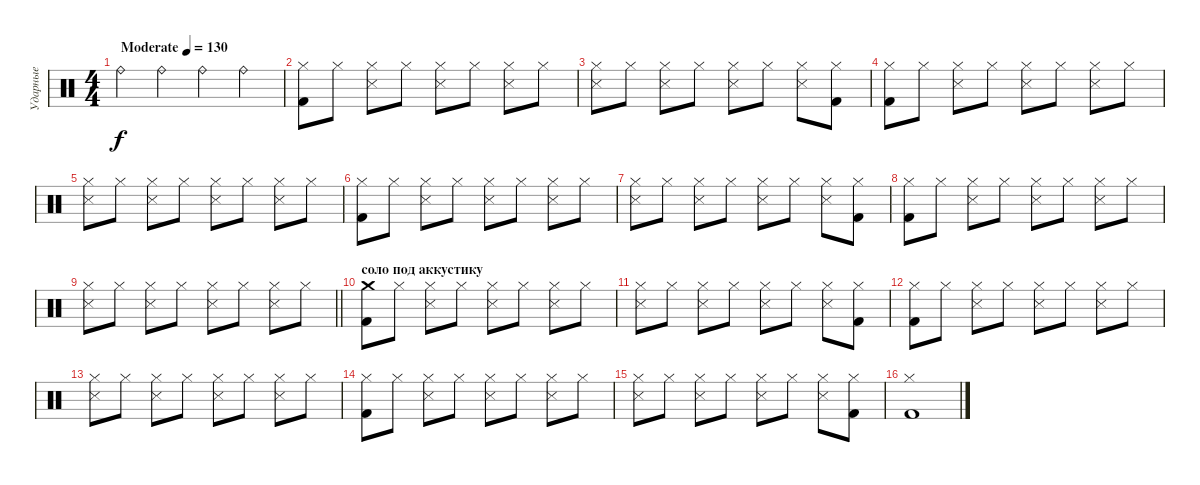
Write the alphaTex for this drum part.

\track ("Ударные" "Ударные") {instrument percussion}
\staff
\articulation defaults
\ts (4 4)
\tempo (130 "Moderate")
\clef neutral
\ks c "Ride (bell)".4{dy f} "Ride (bell)".4 "Ride (bell)".4 "Ride (bell)".4
|
("Hi-Hat (closed)" "Kick (hit) 2").8 "Hi-Hat (closed)".8 ("Hi-Hat (closed)" "Snare (side stick) 3").8 "Hi-Hat (closed)".8 ("Hi-Hat (closed)" "Snare (side stick) 3").8 "Hi-Hat (closed)".8 ("Hi-Hat (closed)" "Snare (side stick) 3").8 "Hi-Hat (closed)".8 |
("Hi-Hat (closed)" "Snare (side stick) 3").8 "Hi-Hat (closed)".8 ("Hi-Hat (closed)" "Snare (side stick) 3").8 "Hi-Hat (closed)".8 ("Hi-Hat (closed)" "Snare (side stick) 3").8 "Hi-Hat (closed)".8 ("Hi-Hat (closed)" "Snare (side stick) 3").8 ("Hi-Hat (closed)" "Kick (hit) 2").8 |
("Hi-Hat (closed)" "Kick (hit) 2").8 "Hi-Hat (closed)".8 ("Hi-Hat (closed)" "Snare (side stick) 3").8 "Hi-Hat (closed)".8 ("Hi-Hat (closed)" "Snare (side stick) 3").8 "Hi-Hat (closed)".8 ("Hi-Hat (closed)" "Snare (side stick) 3").8 "Hi-Hat (closed)".8 |
("Hi-Hat (closed)" "Snare (side stick) 3").8 "Hi-Hat (closed)".8 ("Hi-Hat (closed)" "Snare (side stick) 3").8 "Hi-Hat (closed)".8 ("Hi-Hat (closed)" "Snare (side stick) 3").8 "Hi-Hat (closed)".8 ("Hi-Hat (closed)" "Snare (side stick) 3").8 "Hi-Hat (closed)".8 |
("Hi-Hat (closed)" "Kick (hit) 2").8 "Hi-Hat (closed)".8 ("Hi-Hat (closed)" "Snare (side stick) 3").8 "Hi-Hat (closed)".8 ("Hi-Hat (closed)" "Snare (side stick) 3").8 "Hi-Hat (closed)".8 ("Hi-Hat (closed)" "Snare (side stick) 3").8 "Hi-Hat (closed)".8 |
("Hi-Hat (closed)" "Snare (side stick) 3").8 "Hi-Hat (closed)".8 ("Hi-Hat (closed)" "Snare (side stick) 3").8 "Hi-Hat (closed)".8 ("Hi-Hat (closed)" "Snare (side stick) 3").8 "Hi-Hat (closed)".8 ("Hi-Hat (closed)" "Snare (side stick) 3").8 ("Hi-Hat (closed)" "Kick (hit) 2").8 |
("Hi-Hat (closed)" "Kick (hit) 2").8 "Hi-Hat (closed)".8 ("Hi-Hat (closed)" "Snare (side stick) 3").8 "Hi-Hat (closed)".8 ("Hi-Hat (closed)" "Snare (side stick) 3").8 "Hi-Hat (closed)".8 ("Hi-Hat (closed)" "Snare (side stick) 3").8 "Hi-Hat (closed)".8 |
\barLineRight lightlight
("Hi-Hat (closed)" "Snare (side stick) 3").8 "Hi-Hat (closed)".8 ("Hi-Hat (closed)" "Snare (side stick) 3").8 "Hi-Hat (closed)".8 ("Hi-Hat (closed)" "Snare (side stick) 3").8 "Hi-Hat (closed)".8 ("Hi-Hat (closed)" "Snare (side stick) 3").8 "Hi-Hat (closed)".8 |
\section ("" "соло под аккустику")
("Crash medium (hit)" "Kick (hit) 2").8 "Hi-Hat (closed)".8 ("Hi-Hat (closed)" "Snare (side stick) 3").8 "Hi-Hat (closed)".8 ("Hi-Hat (closed)" "Snare (side stick) 3").8 "Hi-Hat (closed)".8 ("Hi-Hat (closed)" "Snare (side stick) 3").8 "Hi-Hat (closed)".8 |
("Hi-Hat (closed)" "Snare (side stick) 3").8 "Hi-Hat (closed)".8 ("Hi-Hat (closed)" "Snare (side stick) 3").8 "Hi-Hat (closed)".8 ("Hi-Hat (closed)" "Snare (side stick) 3").8 "Hi-Hat (closed)".8 ("Hi-Hat (closed)" "Snare (side stick) 3").8 ("Hi-Hat (closed)" "Kick (hit) 2").8 |
("Hi-Hat (closed)" "Kick (hit) 2").8 "Hi-Hat (closed)".8 ("Hi-Hat (closed)" "Snare (side stick) 3").8 "Hi-Hat (closed)".8 ("Hi-Hat (closed)" "Snare (side stick) 3").8 "Hi-Hat (closed)".8 ("Hi-Hat (closed)" "Snare (side stick) 3").8 "Hi-Hat (closed)".8 |
("Hi-Hat (closed)" "Snare (side stick) 3").8 "Hi-Hat (closed)".8 ("Hi-Hat (closed)" "Snare (side stick) 3").8 "Hi-Hat (closed)".8 ("Hi-Hat (closed)" "Snare (side stick) 3").8 "Hi-Hat (closed)".8 ("Hi-Hat (closed)" "Snare (side stick) 3").8 "Hi-Hat (closed)".8 |
("Hi-Hat (closed)" "Kick (hit) 2").8 "Hi-Hat (closed)".8 ("Hi-Hat (closed)" "Snare (side stick) 3").8 "Hi-Hat (closed)".8 ("Hi-Hat (closed)" "Snare (side stick) 3").8 "Hi-Hat (closed)".8 ("Hi-Hat (closed)" "Snare (side stick) 3").8 "Hi-Hat (closed)".8 |
("Hi-Hat (closed)" "Snare (side stick) 3").8 "Hi-Hat (closed)".8 ("Hi-Hat (closed)" "Snare (side stick) 3").8 "Hi-Hat (closed)".8 ("Hi-Hat (closed)" "Snare (side stick) 3").8 "Hi-Hat (closed)".8 ("Hi-Hat (closed)" "Snare (side stick) 3").8 ("Hi-Hat (closed)" "Kick (hit) 2").8 |
("Hi-Hat (closed)" "Kick (hit) 2").1
